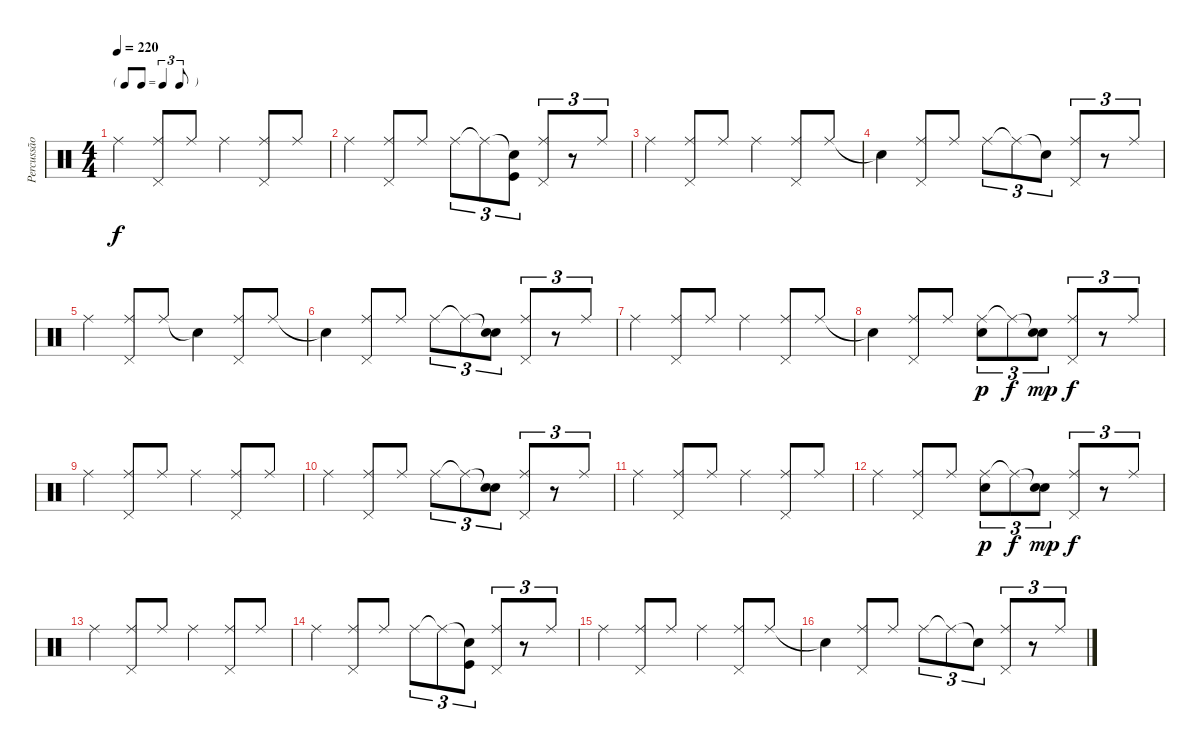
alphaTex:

\track ("Percussão" "Percussão") {instrument percussion}
\staff {score}
\articulation defaults
\ts (4 4)
\tf triplet8th
\tempo 220
\clef neutral
\ks c "Ride (middle)".4{dy f}
("Ride (middle)" "Pedal Hi-Hat (hit)").8 "Ride (middle)".8 "Ride (middle)".4 ("Ride (middle)" "Pedal Hi-Hat (hit)").8 "Ride (middle)".8 |
"Ride (middle)".4 ("Ride (middle)" "Pedal Hi-Hat (hit)").8 "Ride (middle)".8 "Ride (middle)".8{tu (3 2)} "Ride (middle)"{t}.8{tu (3 2)} ("Snare (hit)"{t} "Kick (hit)").8{tu (3 2)} ("Ride (middle)" "Pedal Hi-Hat (hit)").8{tu (3 2)} r.8{tu (3 2)} "Ride (middle)".8{tu (3 2)} |
"Ride (middle)".4 ("Ride (middle)" "Pedal Hi-Hat (hit)").8 "Ride (middle)".8 "Ride (middle)".4 ("Ride (middle)" "Pedal Hi-Hat (hit)").8 "Ride (middle)".8 |
"Snare (hit)"{t}.4 ("Ride (middle)" "Pedal Hi-Hat (hit)").8 "Ride (middle)".8 "Ride (middle)".8{tu (3 2)} "Ride (middle)"{t}.8{tu (3 2)} "Snare (hit)"{t}.8{tu (3 2)} ("Ride (middle)" "Pedal Hi-Hat (hit)").8{tu (3 2)} r.8{tu (3 2)} "Ride (middle)".8{tu (3 2)} |
"Ride (middle)".4 ("Ride (middle)" "Pedal Hi-Hat (hit)").8 "Ride (middle)".8 "Snare (hit)"{t}.4 ("Ride (middle)" "Pedal Hi-Hat (hit)").8 "Ride (middle)".8 |
"Snare (hit)"{t}.4 ("Ride (middle)" "Pedal Hi-Hat (hit)").8 "Ride (middle)".8 "Ride (middle)".8{tu (3 2)} "Ride (middle)"{t}.8{tu (3 2)} ("Snare (hit)"{t} "Electric Snare (hit)").8{tu (3 2)} ("Ride (middle)" "Pedal Hi-Hat (hit)").8{tu (3 2)} r.8{tu (3 2)} "Ride (middle)".8{tu (3 2)} |
"Ride (middle)".4 ("Ride (middle)" "Pedal Hi-Hat (hit)").8 "Ride (middle)".8 "Ride (middle)".4 ("Ride (middle)" "Pedal Hi-Hat (hit)").8 "Ride (middle)".8 |
"Snare (hit)"{t}.4 ("Ride (middle)" "Pedal Hi-Hat (hit)").8 "Ride (middle)".8 ("Ride (middle)" "Electric Snare (hit)").8{tu (3 2) dy p} "Ride (middle)"{t}.8{tu (3 2) dy f} ("Snare (hit)"{t} "Electric Snare (hit)").8{tu (3 2) dy mp} ("Ride (middle)" "Pedal Hi-Hat (hit)").8{tu (3 2) dy f} r.8{tu (3 2)} "Ride (middle)".8{tu (3 2)} |
"Ride (middle)".4 ("Ride (middle)" "Pedal Hi-Hat (hit)").8 "Ride (middle)".8 "Ride (middle)".4 ("Ride (middle)" "Pedal Hi-Hat (hit)").8 "Ride (middle)".8 |
"Ride (middle)".4 ("Ride (middle)" "Pedal Hi-Hat (hit)").8 "Ride (middle)".8 "Ride (middle)".8{tu (3 2)} "Ride (middle)"{t}.8{tu (3 2)} ("Snare (hit)"{t} "Electric Snare (hit)").8{tu (3 2)} ("Ride (middle)" "Pedal Hi-Hat (hit)").8{tu (3 2)} r.8{tu (3 2)} "Ride (middle)".8{tu (3 2)} |
"Ride (middle)".4 ("Ride (middle)" "Pedal Hi-Hat (hit)").8 "Ride (middle)".8 "Ride (middle)".4 ("Ride (middle)" "Pedal Hi-Hat (hit)").8 "Ride (middle)".8 |
"Ride (middle)".4 ("Ride (middle)" "Pedal Hi-Hat (hit)").8 "Ride (middle)".8 ("Ride (middle)" "Electric Snare (hit)").8{tu (3 2) dy p} "Ride (middle)"{t}.8{tu (3 2) dy f} ("Snare (hit)"{t} "Electric Snare (hit)").8{tu (3 2) dy mp} ("Ride (middle)" "Pedal Hi-Hat (hit)").8{tu (3 2) dy f} r.8{tu (3 2)} "Ride (middle)".8{tu (3 2)} |
"Ride (middle)".4 ("Ride (middle)" "Pedal Hi-Hat (hit)").8 "Ride (middle)".8 "Ride (middle)".4 ("Ride (middle)" "Pedal Hi-Hat (hit)").8 "Ride (middle)".8 |
"Ride (middle)".4 ("Ride (middle)" "Pedal Hi-Hat (hit)").8 "Ride (middle)".8 "Ride (middle)".8{tu (3 2)} "Ride (middle)"{t}.8{tu (3 2)} ("Snare (hit)"{t} "Kick (hit)").8{tu (3 2)} ("Ride (middle)" "Pedal Hi-Hat (hit)").8{tu (3 2)} r.8{tu (3 2)} "Ride (middle)".8{tu (3 2)} |
"Ride (middle)".4 ("Ride (middle)" "Pedal Hi-Hat (hit)").8 "Ride (middle)".8 "Ride (middle)".4 ("Ride (middle)" "Pedal Hi-Hat (hit)").8 "Ride (middle)".8 |
"Snare (hit)"{t}.4 ("Ride (middle)" "Pedal Hi-Hat (hit)").8 "Ride (middle)".8 "Ride (middle)".8{tu (3 2)} "Ride (middle)"{t}.8{tu (3 2)} "Snare (hit)"{t}.8{tu (3 2)} ("Ride (middle)" "Pedal Hi-Hat (hit)").8{tu (3 2)} r.8{tu (3 2)} "Ride (middle)".8{tu (3 2)}
